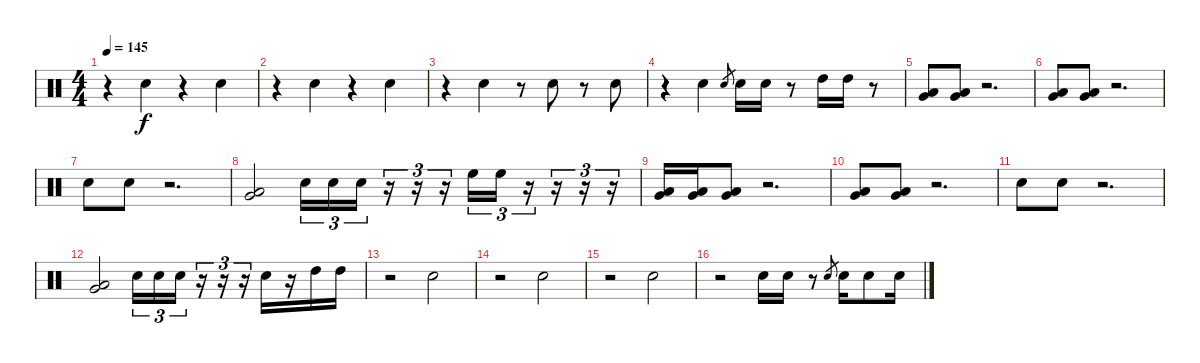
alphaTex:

\track "" {instrument percussion}
\staff {score}
\articulation defaults
\ts (4 4)
\tempo 145
\clef neutral
\ks c
r.4{dy f} "Electric Snare (hit)".4 r.4 "Electric Snare (hit)".4 |
r.4 "Electric Snare (hit)".4 r.4 "Electric Snare (hit)".4 |
r.4 "Electric Snare (hit)".4 r.8 "Electric Snare (hit)".8 r.8 "Electric Snare (hit)".8 |
r.4 "Electric Snare (hit)".4 "Electric Snare (hit)".8{gr} "Electric Snare (hit)".16 "Electric Snare (hit)".16 r.8 "High Tom (hit)".16 "High Tom (hit)".16 r.8 |
("Low Tom (hit)" "Very Low Tom (hit)").8 ("Low Tom (hit)" "Very Low Tom (hit)").8 r.2{d} |
("Low Tom (hit)" "Very Low Tom (hit)").8 ("Low Tom (hit)" "Very Low Tom (hit)").8 r.2{d} |
"Electric Snare (hit)".8 "Electric Snare (hit)".8 r.2{d} |
("Low Tom (hit)" "Very Low Tom (hit)").2 "Electric Snare (hit)".16{tu (3 2)} "Electric Snare (hit)".16{tu (3 2)} "Electric Snare (hit)".16{tu (3 2)} r.16{tu (3 2)} r.16{tu (3 2)} r.16{tu (3 2)} "High Floor Tom (hit)".16{tu (3 2)} "High Floor Tom (hit)".16{tu (3 2)} r.16{tu (3 2)} r.16{tu (3 2)} r.16{tu (3 2)} r.16{tu (3 2)} |
("Low Tom (hit)" "Very Low Tom (hit)").16 ("Low Tom (hit)" "Very Low Tom (hit)").16 ("Low Tom (hit)" "Very Low Tom (hit)").8 r.2{d} |
("Low Tom (hit)" "Very Low Tom (hit)").8 ("Low Tom (hit)" "Very Low Tom (hit)").8 r.2{d} |
"Electric Snare (hit)".8 "Electric Snare (hit)".8 r.2{d} |
("Low Tom (hit)" "Very Low Tom (hit)").2 "Electric Snare (hit)".16{tu (3 2)} "Electric Snare (hit)".16{tu (3 2)} "Electric Snare (hit)".16{tu (3 2)} r.16{tu (3 2)} r.16{tu (3 2)} r.16{tu (3 2)} "Electric Snare (hit)".16 r.16 "High Tom (hit)".16 "High Tom (hit)".16 |
r.2 "Electric Snare (hit)".2 |
r.2 "Electric Snare (hit)".2 |
r.2 "Electric Snare (hit)".2 |
r.2 "Electric Snare (hit)".16 "Electric Snare (hit)".16 r.8 "Electric Snare (hit)".8{gr} "Electric Snare (hit)".16 "Electric Snare (hit)".8 "Electric Snare (hit)".16
